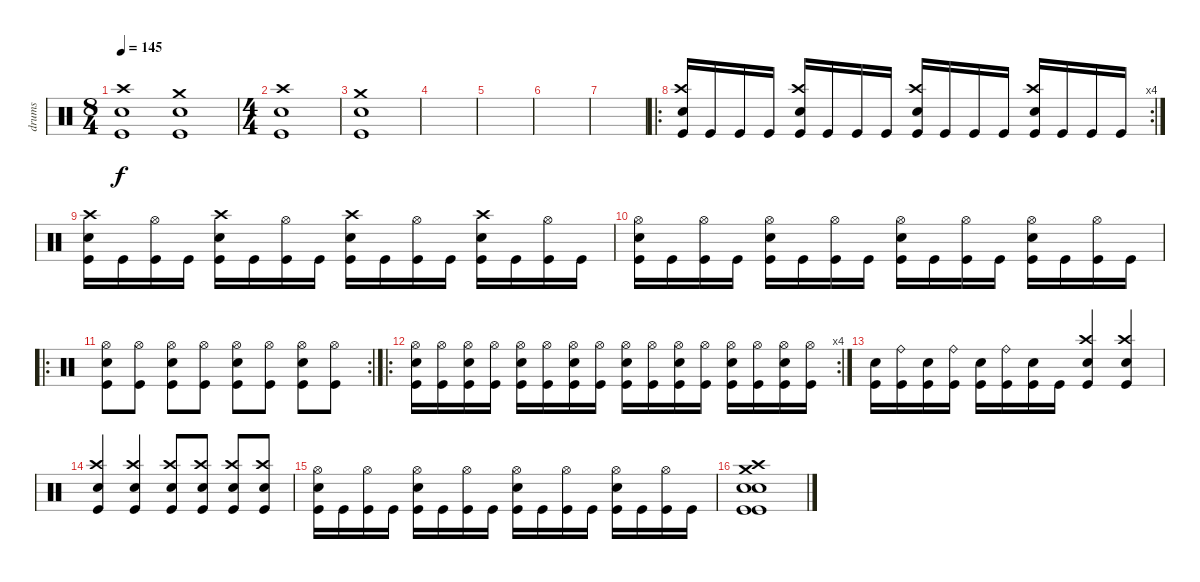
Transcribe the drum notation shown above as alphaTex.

\track ("drums" "drums") {instrument percussion}
\staff {score}
\articulation defaults
\ts (8 4)
\tempo 145
\clef neutral
\ks c
("Electric Snare (hit)" "Crash high (hit)" "Kick (hit)").1{dy f} ("Electric Snare (hit)" "Crash medium (hit)" "Kick (hit)").1 |
\ts (4 4)
("Electric Snare (hit)" "Crash high (hit)" "Kick (hit)").1 |
("Electric Snare (hit)" "Crash medium (hit)" "Kick (hit)").1 |
|
|
|
|
\ro
\rc 4
("Electric Snare (hit)" "Crash high (hit)" "Kick (hit)").16 "Kick (hit)".16 "Kick (hit)".16 "Kick (hit)".16 ("Electric Snare (hit)" "Crash high (hit)" "Kick (hit)").16 "Kick (hit)".16 "Kick (hit)".16 "Kick (hit)".16 ("Electric Snare (hit)" "Crash high (hit)" "Kick (hit)").16 "Kick (hit)".16 "Kick (hit)".16 "Kick (hit)".16 ("Electric Snare (hit)" "Crash high (hit)" "Kick (hit)").16 "Kick (hit)".16 "Kick (hit)".16 "Kick (hit)".16 |
("Electric Snare (hit)" "Crash high (hit)" "Kick (hit)").16 "Kick (hit)".16 ("Hi-Hat (open)" "Kick (hit)").16 "Kick (hit)".16 ("Electric Snare (hit)" "Crash high (hit)" "Kick (hit)").16 "Kick (hit)".16 ("Hi-Hat (open)" "Kick (hit)").16 "Kick (hit)".16 ("Electric Snare (hit)" "Crash high (hit)" "Kick (hit)").16 "Kick (hit)".16 ("Hi-Hat (open)" "Kick (hit)").16 "Kick (hit)".16 ("Electric Snare (hit)" "Crash high (hit)" "Kick (hit)").16 "Kick (hit)".16 ("Hi-Hat (open)" "Kick (hit)").16 "Kick (hit)".16 |
("Electric Snare (hit)" "Hi-Hat (open)" "Kick (hit)").16 "Kick (hit)".16 ("Hi-Hat (open)" "Kick (hit)").16 "Kick (hit)".16 ("Electric Snare (hit)" "Hi-Hat (open)" "Kick (hit)").16 "Kick (hit)".16 ("Hi-Hat (open)" "Kick (hit)").16 "Kick (hit)".16 ("Electric Snare (hit)" "Hi-Hat (open)" "Kick (hit)").16 "Kick (hit)".16 ("Hi-Hat (open)" "Kick (hit)").16 "Kick (hit)".16 ("Electric Snare (hit)" "Hi-Hat (open)" "Kick (hit)").16 "Kick (hit)".16 ("Hi-Hat (open)" "Kick (hit)").16 "Kick (hit)".16 |
\ro
\rc 2
("Electric Snare (hit)" "Hi-Hat (open)" "Kick (hit)").8 ("Hi-Hat (open)" "Kick (hit)").8 ("Electric Snare (hit)" "Hi-Hat (open)" "Kick (hit)").8 ("Hi-Hat (open)" "Kick (hit)").8 ("Electric Snare (hit)" "Hi-Hat (open)" "Kick (hit)").8 ("Hi-Hat (open)" "Kick (hit)").8 ("Electric Snare (hit)" "Hi-Hat (open)" "Kick (hit)").8 ("Hi-Hat (open)" "Kick (hit)").8 |
\ro
\rc 4
("Electric Snare (hit)" "Hi-Hat (open)" "Kick (hit)").16 ("Hi-Hat (open)" "Kick (hit)").16 ("Electric Snare (hit)" "Hi-Hat (open)" "Kick (hit)").16 ("Hi-Hat (open)" "Kick (hit)").16 ("Electric Snare (hit)" "Hi-Hat (open)" "Kick (hit)").16 ("Hi-Hat (open)" "Kick (hit)").16 ("Electric Snare (hit)" "Hi-Hat (open)" "Kick (hit)").16 ("Hi-Hat (open)" "Kick (hit)").16 ("Electric Snare (hit)" "Hi-Hat (open)" "Kick (hit)").16 ("Hi-Hat (open)" "Kick (hit)").16 ("Electric Snare (hit)" "Hi-Hat (open)" "Kick (hit)").16 ("Hi-Hat (open)" "Kick (hit)").16 ("Electric Snare (hit)" "Hi-Hat (open)" "Kick (hit)").16 ("Hi-Hat (open)" "Kick (hit)").16 ("Electric Snare (hit)" "Hi-Hat (open)" "Kick (hit)").16 ("Hi-Hat (open)" "Kick (hit)").16 |
("Electric Snare (hit)" "Kick (hit)").16 ("Ride (bell)" "Kick (hit)").16 ("Electric Snare (hit)" "Kick (hit)").16 ("Ride (bell)" "Kick (hit)").16 ("Electric Snare (hit)" "Kick (hit)").16 ("Ride (bell)" "Kick (hit)").16 ("Electric Snare (hit)" "Kick (hit)").16 "Kick (hit)".16 ("Electric Snare (hit)" "Crash high (hit)" "Kick (hit)").4 ("Electric Snare (hit)" "Crash high (hit)" "Kick (hit)").4 |
("Electric Snare (hit)" "Crash high (hit)" "Kick (hit)").4 ("Electric Snare (hit)" "Crash high (hit)" "Kick (hit)").4 ("Electric Snare (hit)" "Crash high (hit)" "Kick (hit)").8 ("Electric Snare (hit)" "Crash high (hit)" "Kick (hit)").8 ("Electric Snare (hit)" "Crash high (hit)" "Kick (hit)").8 ("Electric Snare (hit)" "Crash high (hit)" "Kick (hit)").8 |
("Electric Snare (hit)" "Hi-Hat (open)" "Kick (hit)").16 "Kick (hit)".16 ("Hi-Hat (open)" "Kick (hit)").16 "Kick (hit)".16 ("Electric Snare (hit)" "Hi-Hat (open)" "Kick (hit)").16 "Kick (hit)".16 ("Hi-Hat (open)" "Kick (hit)").16 "Kick (hit)".16 ("Electric Snare (hit)" "Hi-Hat (open)" "Kick (hit)").16 "Kick (hit)".16 ("Hi-Hat (open)" "Kick (hit)").16 "Kick (hit)".16 ("Electric Snare (hit)" "Hi-Hat (open)" "Kick (hit)").16 "Kick (hit)".16 ("Hi-Hat (open)" "Kick (hit)").16 "Kick (hit)".16 |
("Electric Snare (hit)" "Electric Snare (hit)" "Crash high (hit)" "Crash medium (hit)" "Kick (hit)" "Kick (hit)").1
